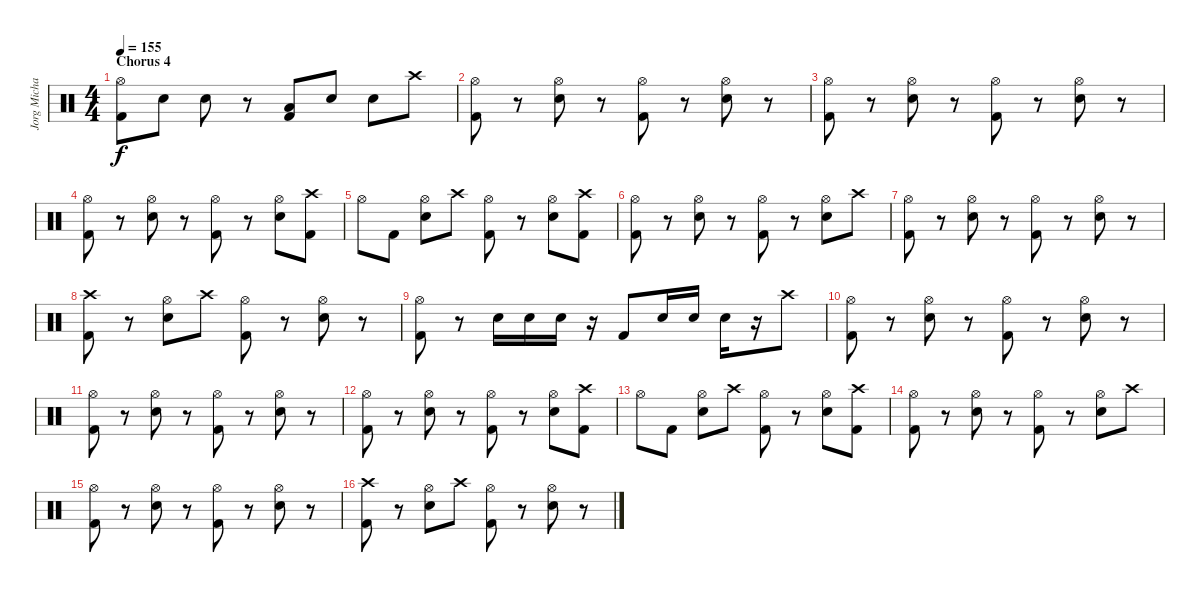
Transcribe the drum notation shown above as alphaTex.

\track ("Jorg Michael - Batteria" "Jorg Micha") {instrument percussion}
\staff {score}
\articulation defaults
\ts (4 4)
\section ("" "Chorus 4")
\tempo 155
\clef neutral
\ks c
("Kick (hit) 2" "Hi-Hat (open)").8{dy f} "Snare (hit) 2".8 "Snare (hit) 2".8 r.8 ("Kick (hit) 2" "Low Tom (hit)").8 "Snare (hit) 2".8 "Snare (hit) 2".8 "Crash high (hit)".8 |
("Kick (hit) 2" "Hi-Hat (open)").8 r.8 ("Snare (hit) 2" "Hi-Hat (open)").8 r.8 ("Kick (hit) 2" "Hi-Hat (open)").8 r.8 ("Snare (hit) 2" "Hi-Hat (open)").8 r.8 |
("Kick (hit) 2" "Hi-Hat (open)").8 r.8 ("Snare (hit) 2" "Hi-Hat (open)").8 r.8 ("Kick (hit) 2" "Hi-Hat (open)").8 r.8 ("Snare (hit) 2" "Hi-Hat (open)").8 r.8 |
("Kick (hit) 2" "Hi-Hat (open)").8 r.8 ("Snare (hit) 2" "Hi-Hat (open)").8 r.8 ("Kick (hit) 2" "Hi-Hat (open)").8 r.8 ("Snare (hit) 2" "Hi-Hat (open)").8 ("Kick (hit) 2" "Crash high (hit)").8 |
"Hi-Hat (open)".8 "Kick (hit) 2".8 ("Snare (hit) 2" "Hi-Hat (open)").8 "Crash high (hit)".8 ("Kick (hit) 2" "Hi-Hat (open)").8 r.8 ("Snare (hit) 2" "Hi-Hat (open)").8 ("Kick (hit) 2" "Crash high (hit)").8 |
("Kick (hit) 2" "Hi-Hat (open)").8 r.8 ("Snare (hit) 2" "Hi-Hat (open)").8 r.8 ("Kick (hit) 2" "Hi-Hat (open)").8 r.8 ("Snare (hit) 2" "Hi-Hat (open)").8 "Crash high (hit)".8 |
("Kick (hit) 2" "Hi-Hat (open)").8 r.8 ("Snare (hit) 2" "Hi-Hat (open)").8 r.8 ("Kick (hit) 2" "Hi-Hat (open)").8 r.8 ("Snare (hit) 2" "Hi-Hat (open)").8 r.8 |
("Kick (hit) 2" "Crash high (hit)").8 r.8 ("Snare (hit) 2" "Hi-Hat (open)").8 "Crash high (hit)".8 ("Kick (hit) 2" "Hi-Hat (open)").8 r.8 ("Snare (hit) 2" "Hi-Hat (open)").8 r.8 |
\section ("" "")
("Kick (hit) 2" "Hi-Hat (open)").8 r.8 "Snare (hit) 2".16 "Snare (hit) 2".16 "Snare (hit) 2".16 r.16 "Kick (hit) 2".8 "Snare (hit) 2".16 "Snare (hit) 2".16 "Snare (hit) 2".16 r.16 "Crash high (hit)".8 |
("Kick (hit) 2" "Hi-Hat (open)").8 r.8 ("Snare (hit) 2" "Hi-Hat (open)").8 r.8 ("Kick (hit) 2" "Hi-Hat (open)").8 r.8 ("Snare (hit) 2" "Hi-Hat (open)").8 r.8 |
("Kick (hit) 2" "Hi-Hat (open)").8 r.8 ("Snare (hit) 2" "Hi-Hat (open)").8 r.8 ("Kick (hit) 2" "Hi-Hat (open)").8 r.8 ("Snare (hit) 2" "Hi-Hat (open)").8 r.8 |
("Kick (hit) 2" "Hi-Hat (open)").8 r.8 ("Snare (hit) 2" "Hi-Hat (open)").8 r.8 ("Kick (hit) 2" "Hi-Hat (open)").8 r.8 ("Snare (hit) 2" "Hi-Hat (open)").8 ("Kick (hit) 2" "Crash high (hit)").8 |
"Hi-Hat (open)".8 "Kick (hit) 2".8 ("Snare (hit) 2" "Hi-Hat (open)").8 "Crash high (hit)".8 ("Kick (hit) 2" "Hi-Hat (open)").8 r.8 ("Snare (hit) 2" "Hi-Hat (open)").8 ("Kick (hit) 2" "Crash high (hit)").8 |
("Kick (hit) 2" "Hi-Hat (open)").8 r.8 ("Snare (hit) 2" "Hi-Hat (open)").8 r.8 ("Kick (hit) 2" "Hi-Hat (open)").8 r.8 ("Snare (hit) 2" "Hi-Hat (open)").8 "Crash high (hit)".8 |
("Kick (hit) 2" "Hi-Hat (open)").8 r.8 ("Snare (hit) 2" "Hi-Hat (open)").8 r.8 ("Kick (hit) 2" "Hi-Hat (open)").8 r.8 ("Snare (hit) 2" "Hi-Hat (open)").8 r.8 |
("Kick (hit) 2" "Crash high (hit)").8 r.8 ("Snare (hit) 2" "Hi-Hat (open)").8 "Crash high (hit)".8 ("Kick (hit) 2" "Hi-Hat (open)").8 r.8 ("Snare (hit) 2" "Hi-Hat (open)").8 r.8
